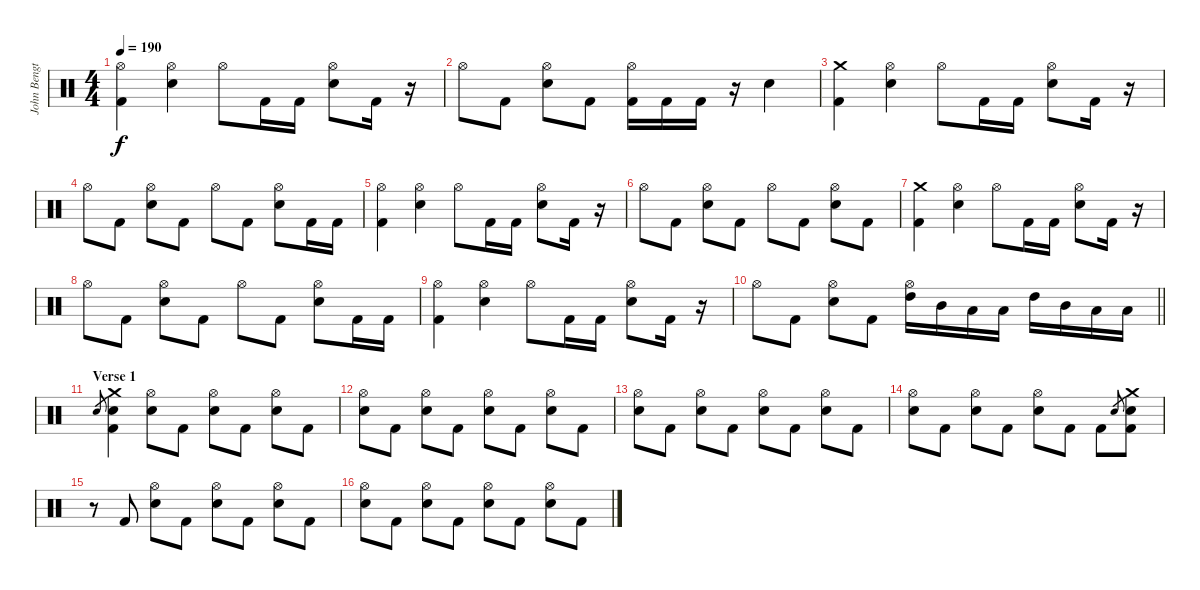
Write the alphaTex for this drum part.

\track ("John Bengtsson" "John Bengt") {instrument percussion}
\staff {score}
\articulation defaults
\ts (4 4)
\tempo 190
\clef neutral
\ks c
("Hi-Hat (open)" "Kick (hit) 2").4{dy f} ("Hi-Hat (open)" "Electric Snare (hit)").4 "Hi-Hat (open)".8 "Kick (hit) 2".16 "Kick (hit) 2".16 ("Hi-Hat (open)" "Electric Snare (hit)").8 "Kick (hit) 2".16 r.16 |
"Hi-Hat (open)".8 "Kick (hit) 2".8 ("Hi-Hat (open)" "Electric Snare (hit)").8 "Kick (hit) 2".8 ("Hi-Hat (open)" "Kick (hit) 2").16 "Kick (hit) 2".16 "Kick (hit) 2".16 r.16 "Electric Snare (hit)".4 |
("Crash medium (hit)" "Kick (hit) 2").4 ("Hi-Hat (open)" "Electric Snare (hit)").4 "Hi-Hat (open)".8 "Kick (hit) 2".16 "Kick (hit) 2".16 ("Hi-Hat (open)" "Electric Snare (hit)").8 "Kick (hit) 2".16 r.16 |
"Hi-Hat (open)".8 "Kick (hit) 2".8 ("Hi-Hat (open)" "Electric Snare (hit)").8 "Kick (hit) 2".8 "Hi-Hat (open)".8 "Kick (hit) 2".8 ("Hi-Hat (open)" "Electric Snare (hit)").8 "Kick (hit) 2".16 "Kick (hit) 2".16 |
("Hi-Hat (open)" "Kick (hit) 2").4 ("Hi-Hat (open)" "Electric Snare (hit)").4 "Hi-Hat (open)".8 "Kick (hit) 2".16 "Kick (hit) 2".16 ("Hi-Hat (open)" "Electric Snare (hit)").8 "Kick (hit) 2".16 r.16 |
"Hi-Hat (open)".8 "Kick (hit) 2".8 ("Hi-Hat (open)" "Electric Snare (hit)").8 "Kick (hit) 2".8 "Hi-Hat (open)".8 "Kick (hit) 2".8 ("Hi-Hat (open)" "Electric Snare (hit)").8 "Kick (hit) 2".8 |
("Crash medium (hit)" "Kick (hit) 2").4 ("Hi-Hat (open)" "Electric Snare (hit)").4 "Hi-Hat (open)".8 "Kick (hit) 2".16 "Kick (hit) 2".16 ("Hi-Hat (open)" "Electric Snare (hit)").8 "Kick (hit) 2".16 r.16 |
"Hi-Hat (open)".8 "Kick (hit) 2".8 ("Hi-Hat (open)" "Electric Snare (hit)").8 "Kick (hit) 2".8 "Hi-Hat (open)".8 "Kick (hit) 2".8 ("Hi-Hat (open)" "Electric Snare (hit)").8 "Kick (hit) 2".16 "Kick (hit) 2".16 |
("Hi-Hat (open)" "Kick (hit) 2").4 ("Hi-Hat (open)" "Electric Snare (hit)").4 "Hi-Hat (open)".8 "Kick (hit) 2".16 "Kick (hit) 2".16 ("Hi-Hat (open)" "Electric Snare (hit)").8 "Kick (hit) 2".16 r.16 |
\barLineRight lightlight "Hi-Hat (open)".8 "Kick (hit) 2".8
("Hi-Hat (open)" "Electric Snare (hit)").8 "Kick (hit) 2".8 ("Hi-Hat (open)" "High Tom (hit)").16 "Mid Tom (hit)".16 "Low Tom (hit)".16 "Low Floor Tom (hit)".16 "High Tom (hit)".16 "Mid Tom (hit)".16 "Low Tom (hit)".16 "Low Floor Tom (hit)".16 |
\section ("" "Verse 1")
"Electric Snare (hit)".8{gr} ("Crash medium (hit)" "Electric Snare (hit)" "Kick (hit) 2").4 ("Hi-Hat (open)" "Electric Snare (hit)").8 "Kick (hit) 2".8 ("Hi-Hat (open)" "Electric Snare (hit)").8 "Kick (hit) 2".8 ("Hi-Hat (open)" "Electric Snare (hit)").8 "Kick (hit) 2".8 |
("Hi-Hat (open)" "Electric Snare (hit)").8 "Kick (hit) 2".8 ("Hi-Hat (open)" "Electric Snare (hit)").8 "Kick (hit) 2".8 ("Hi-Hat (open)" "Electric Snare (hit)").8 "Kick (hit) 2".8 ("Hi-Hat (open)" "Electric Snare (hit)").8 "Kick (hit) 2".8 |
("Hi-Hat (open)" "Electric Snare (hit)").8 "Kick (hit) 2".8 ("Hi-Hat (open)" "Electric Snare (hit)").8 "Kick (hit) 2".8 ("Hi-Hat (open)" "Electric Snare (hit)").8 "Kick (hit) 2".8 ("Hi-Hat (open)" "Electric Snare (hit)").8 "Kick (hit) 2".8 |
("Hi-Hat (open)" "Electric Snare (hit)").8 "Kick (hit) 2".8 ("Hi-Hat (open)" "Electric Snare (hit)").8 "Kick (hit) 2".8 ("Hi-Hat (open)" "Electric Snare (hit)").8 "Kick (hit) 2".8 "Kick (hit) 2".8 "Electric Snare (hit)".8{gr} ("Crash medium (hit)" "Electric Snare (hit)" "Kick (hit) 2").8 |
r.8 "Kick (hit) 2".8 ("Hi-Hat (open)" "Electric Snare (hit)").8 "Kick (hit) 2".8 ("Hi-Hat (open)" "Electric Snare (hit)").8 "Kick (hit) 2".8 ("Hi-Hat (open)" "Electric Snare (hit)").8 "Kick (hit) 2".8 |
("Hi-Hat (open)" "Electric Snare (hit)").8 "Kick (hit) 2".8 ("Hi-Hat (open)" "Electric Snare (hit)").8 "Kick (hit) 2".8 ("Hi-Hat (open)" "Electric Snare (hit)").8 "Kick (hit) 2".8 ("Hi-Hat (open)" "Electric Snare (hit)").8 "Kick (hit) 2".8
